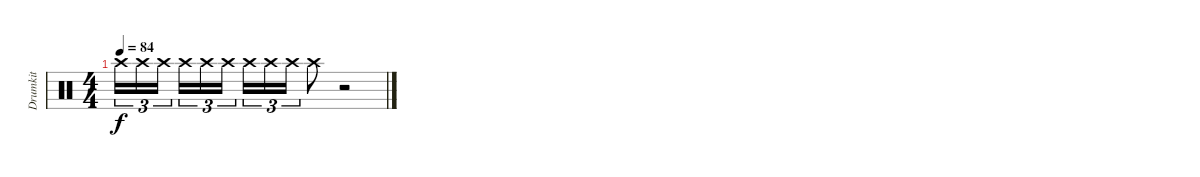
\track ("Drumkit" "Drumkit") {instrument percussion}
\staff {score}
\articulation defaults
\ts (4 4)
\tempo 84
\clef neutral
\ks c "Crash high (hit)".16{tu (3 2) dy f} "Crash high (hit)".16{tu (3 2)} "Crash high (hit)".16{tu (3 2)} "Crash high (hit)".16{tu (3 2)} "Crash high (hit)".16{tu (3 2)} "Crash high (hit)".16{tu (3 2)} "Crash high (hit)".16{tu (3 2)} "Crash high (hit)".16{tu (3 2)} "Crash high (hit)".16{tu (3 2)} "Crash high (hit)".8
r.2
